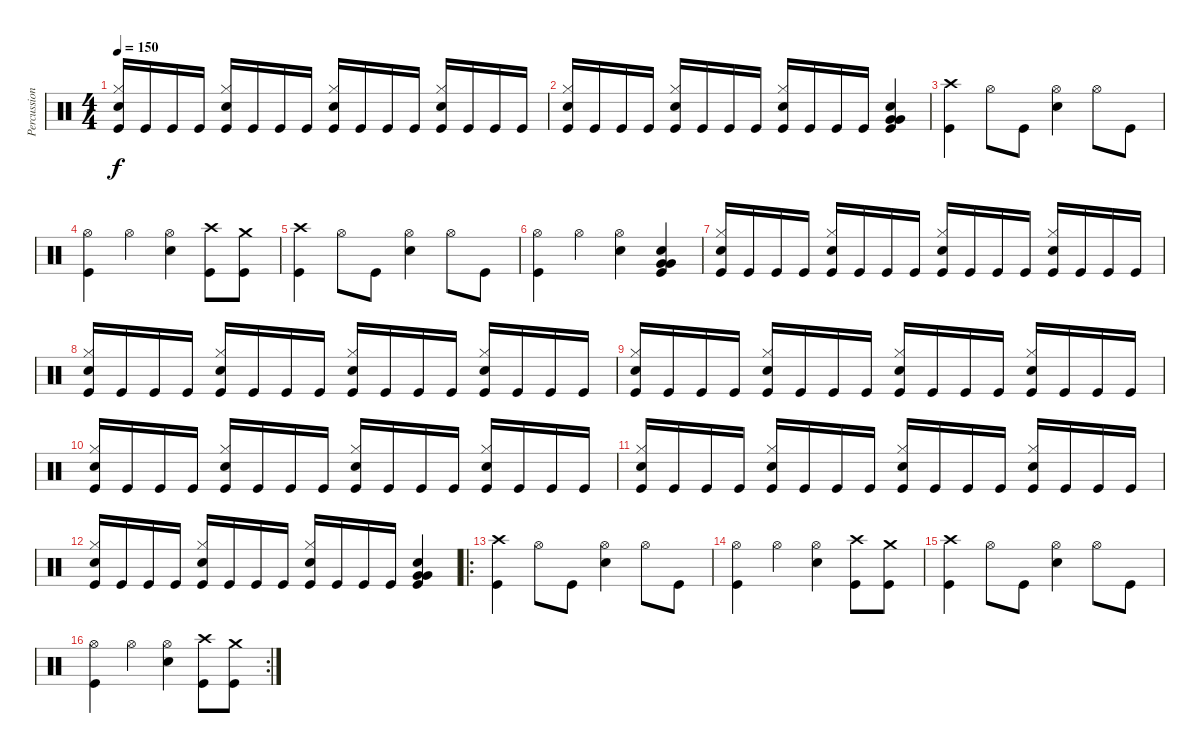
\track ("Percussion" "Percussion") {instrument percussion}
\staff {score}
\articulation defaults
\ts (4 4)
\tempo 150
\clef neutral
\ks c
("Kick (hit)" "Hi-Hat (closed)" "Snare (hit) 2").16{dy f} "Kick (hit)".16 "Kick (hit)".16 "Kick (hit)".16 ("Kick (hit)" "Hi-Hat (closed)" "Snare (hit) 2").16 "Kick (hit)".16 "Kick (hit)".16 "Kick (hit)".16 ("Kick (hit)" "Hi-Hat (closed)" "Snare (hit) 2").16 "Kick (hit)".16 "Kick (hit)".16 "Kick (hit)".16 ("Kick (hit)" "Hi-Hat (closed)" "Snare (hit) 2").16 "Kick (hit)".16 "Kick (hit)".16 "Kick (hit)".16 |
("Kick (hit)" "Hi-Hat (closed)" "Snare (hit) 2").16 "Kick (hit)".16 "Kick (hit)".16 "Kick (hit)".16 ("Kick (hit)" "Hi-Hat (closed)" "Snare (hit) 2").16 "Kick (hit)".16 "Kick (hit)".16 "Kick (hit)".16 ("Kick (hit)" "Hi-Hat (closed)" "Snare (hit) 2").16 "Kick (hit)".16 "Kick (hit)".16 "Kick (hit)".16 ("Kick (hit)" "Very Low Tom (hit)" "Very Low Tom (hit)" "Snare (hit) 2").4 |
("Kick (hit)" "Crash high (hit)").4 "Hi-Hat (open)".8 "Kick (hit)".8 ("Hi-Hat (open)" "Snare (hit) 2").4 "Hi-Hat (open)".8 "Kick (hit)".8 |
("Kick (hit)" "Hi-Hat (open)").4 "Hi-Hat (open)".4 ("Hi-Hat (open)" "Snare (hit) 2").4 ("Kick (hit)" "Crash high (hit)").8 ("Kick (hit)" "Crash medium (hit)").8 |
("Kick (hit)" "Crash high (hit)").4 "Hi-Hat (open)".8 "Kick (hit)".8 ("Hi-Hat (open)" "Snare (hit) 2").4 "Hi-Hat (open)".8 "Kick (hit)".8 |
("Kick (hit)" "Hi-Hat (open)").4 "Hi-Hat (open)".4 ("Hi-Hat (open)" "Snare (hit) 2").4 ("Kick (hit)" "Very Low Tom (hit)" "Very Low Tom (hit)" "Snare (hit) 2").4 |
("Kick (hit)" "Hi-Hat (closed)" "Snare (hit) 2").16 "Kick (hit)".16 "Kick (hit)".16 "Kick (hit)".16 ("Kick (hit)" "Hi-Hat (closed)" "Snare (hit) 2").16 "Kick (hit)".16 "Kick (hit)".16 "Kick (hit)".16 ("Kick (hit)" "Hi-Hat (closed)" "Snare (hit) 2").16 "Kick (hit)".16 "Kick (hit)".16 "Kick (hit)".16 ("Kick (hit)" "Hi-Hat (closed)" "Snare (hit) 2").16 "Kick (hit)".16 "Kick (hit)".16 "Kick (hit)".16 |
("Kick (hit)" "Hi-Hat (closed)" "Snare (hit) 2").16 "Kick (hit)".16 "Kick (hit)".16 "Kick (hit)".16 ("Kick (hit)" "Hi-Hat (closed)" "Snare (hit) 2").16 "Kick (hit)".16 "Kick (hit)".16 "Kick (hit)".16 ("Kick (hit)" "Hi-Hat (closed)" "Snare (hit) 2").16 "Kick (hit)".16 "Kick (hit)".16 "Kick (hit)".16 ("Kick (hit)" "Hi-Hat (closed)" "Snare (hit) 2").16 "Kick (hit)".16 "Kick (hit)".16 "Kick (hit)".16 |
("Kick (hit)" "Hi-Hat (closed)" "Snare (hit) 2").16 "Kick (hit)".16 "Kick (hit)".16 "Kick (hit)".16 ("Kick (hit)" "Hi-Hat (closed)" "Snare (hit) 2").16 "Kick (hit)".16 "Kick (hit)".16 "Kick (hit)".16 ("Kick (hit)" "Hi-Hat (closed)" "Snare (hit) 2").16 "Kick (hit)".16 "Kick (hit)".16 "Kick (hit)".16 ("Kick (hit)" "Hi-Hat (closed)" "Snare (hit) 2").16 "Kick (hit)".16 "Kick (hit)".16 "Kick (hit)".16 |
("Kick (hit)" "Hi-Hat (closed)" "Snare (hit) 2").16 "Kick (hit)".16 "Kick (hit)".16 "Kick (hit)".16 ("Kick (hit)" "Hi-Hat (closed)" "Snare (hit) 2").16 "Kick (hit)".16 "Kick (hit)".16 "Kick (hit)".16 ("Kick (hit)" "Hi-Hat (closed)" "Snare (hit) 2").16 "Kick (hit)".16 "Kick (hit)".16 "Kick (hit)".16 ("Kick (hit)" "Hi-Hat (closed)" "Snare (hit) 2").16 "Kick (hit)".16 "Kick (hit)".16 "Kick (hit)".16 |
("Kick (hit)" "Hi-Hat (closed)" "Snare (hit) 2").16 "Kick (hit)".16 "Kick (hit)".16 "Kick (hit)".16 ("Kick (hit)" "Hi-Hat (closed)" "Snare (hit) 2").16 "Kick (hit)".16 "Kick (hit)".16 "Kick (hit)".16 ("Kick (hit)" "Hi-Hat (closed)" "Snare (hit) 2").16 "Kick (hit)".16 "Kick (hit)".16 "Kick (hit)".16 ("Kick (hit)" "Hi-Hat (closed)" "Snare (hit) 2").16 "Kick (hit)".16 "Kick (hit)".16 "Kick (hit)".16 |
("Kick (hit)" "Hi-Hat (closed)" "Snare (hit) 2").16 "Kick (hit)".16 "Kick (hit)".16 "Kick (hit)".16 ("Kick (hit)" "Hi-Hat (closed)" "Snare (hit) 2").16 "Kick (hit)".16 "Kick (hit)".16 "Kick (hit)".16 ("Kick (hit)" "Hi-Hat (closed)" "Snare (hit) 2").16 "Kick (hit)".16 "Kick (hit)".16 "Kick (hit)".16 ("Kick (hit)" "Very Low Tom (hit)" "Very Low Tom (hit)" "Snare (hit) 2").4 |
\ro
("Kick (hit)" "Crash high (hit)").4 "Hi-Hat (open)".8 "Kick (hit)".8 ("Hi-Hat (open)" "Snare (hit) 2").4 "Hi-Hat (open)".8 "Kick (hit)".8 |
("Kick (hit)" "Hi-Hat (open)").4 "Hi-Hat (open)".4 ("Hi-Hat (open)" "Snare (hit) 2").4 ("Kick (hit)" "Crash high (hit)").8 ("Kick (hit)" "Crash medium (hit)").8 |
("Kick (hit)" "Crash high (hit)").4 "Hi-Hat (open)".8 "Kick (hit)".8 ("Hi-Hat (open)" "Snare (hit) 2").4 "Hi-Hat (open)".8 "Kick (hit)".8 |
\rc 2
("Kick (hit)" "Hi-Hat (open)").4 "Hi-Hat (open)".4 ("Hi-Hat (open)" "Snare (hit) 2").4 ("Kick (hit)" "Crash high (hit)").8 ("Kick (hit)" "Crash medium (hit)").8
